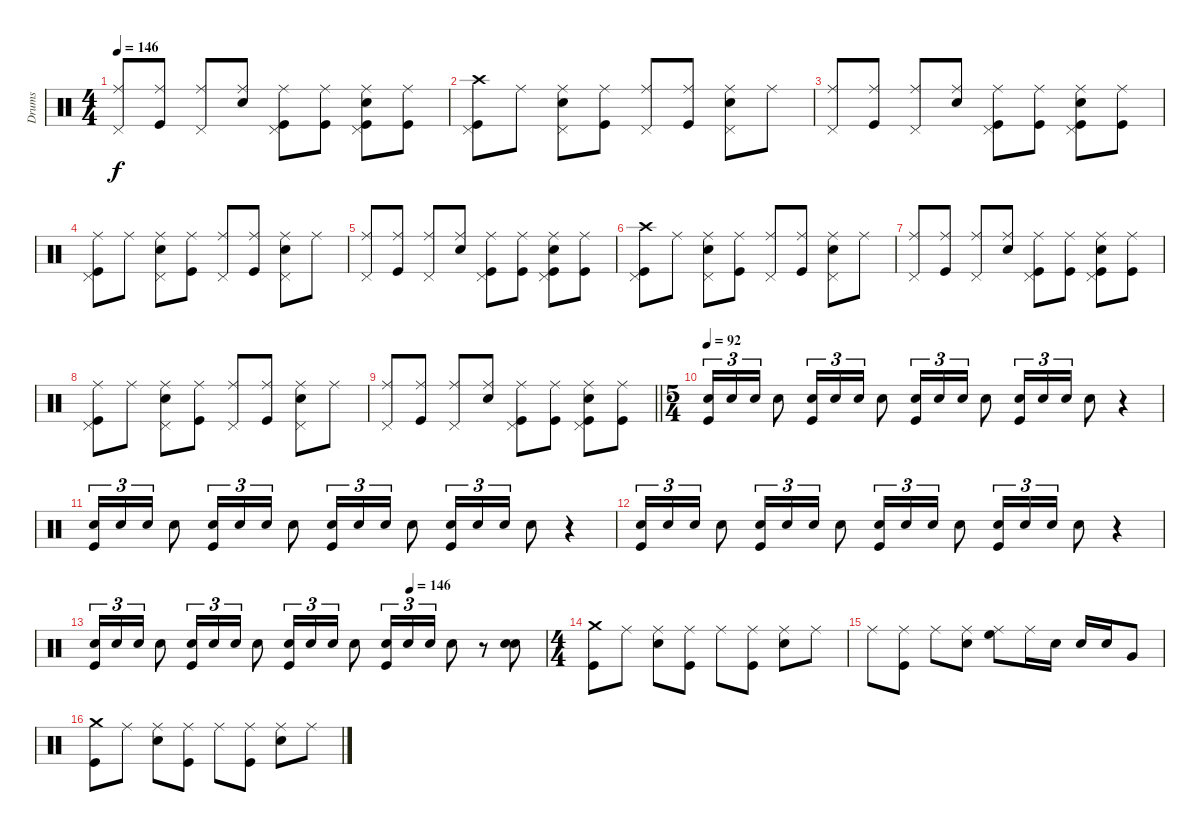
\track ("Drums" "Drums") {instrument percussion}
\staff {score}
\articulation defaults
\ts (4 4)
\tempo 146
\clef neutral
\ks c
("Ride (middle)" "Pedal Hi-Hat (hit)").8{dy f} ("Ride (middle)" "Kick (hit)").8 ("Ride (middle)" "Pedal Hi-Hat (hit)").8 ("Ride (middle)" "Electric Snare (hit)").8 ("Ride (middle)" "Pedal Hi-Hat (hit)" "Kick (hit)").8 ("Ride (middle)" "Kick (hit)").8 ("Ride (middle)" "Pedal Hi-Hat (hit)" "Electric Snare (hit)" "Kick (hit)").8 ("Ride (middle)" "Kick (hit)").8 |
("Crash high (hit)" "Pedal Hi-Hat (hit)" "Kick (hit)").8 "Ride (middle)".8 ("Ride (middle)" "Pedal Hi-Hat (hit)" "Electric Snare (hit)").8 ("Ride (middle)" "Kick (hit)").8 ("Ride (middle)" "Pedal Hi-Hat (hit)").8 ("Ride (middle)" "Kick (hit)").8 ("Ride (middle)" "Pedal Hi-Hat (hit)" "Electric Snare (hit)").8 "Ride (middle)".8 |
("Ride (middle)" "Pedal Hi-Hat (hit)").8 ("Ride (middle)" "Kick (hit)").8 ("Ride (middle)" "Pedal Hi-Hat (hit)").8 ("Ride (middle)" "Electric Snare (hit)").8 ("Ride (middle)" "Pedal Hi-Hat (hit)" "Kick (hit)").8 ("Ride (middle)" "Kick (hit)").8 ("Ride (middle)" "Pedal Hi-Hat (hit)" "Electric Snare (hit)" "Kick (hit)").8 ("Ride (middle)" "Kick (hit)").8 |
("Ride (middle)" "Pedal Hi-Hat (hit)" "Kick (hit)").8 "Ride (middle)".8 ("Ride (middle)" "Pedal Hi-Hat (hit)" "Electric Snare (hit)").8 ("Ride (middle)" "Kick (hit)").8 ("Ride (middle)" "Pedal Hi-Hat (hit)").8 ("Ride (middle)" "Kick (hit)").8 ("Ride (middle)" "Pedal Hi-Hat (hit)" "Electric Snare (hit)").8 "Ride (middle)".8 |
("Ride (middle)" "Pedal Hi-Hat (hit)").8 ("Ride (middle)" "Kick (hit)").8 ("Ride (middle)" "Pedal Hi-Hat (hit)").8 ("Ride (middle)" "Electric Snare (hit)").8 ("Ride (middle)" "Pedal Hi-Hat (hit)" "Kick (hit)").8 ("Ride (middle)" "Kick (hit)").8 ("Ride (middle)" "Pedal Hi-Hat (hit)" "Electric Snare (hit)" "Kick (hit)").8 ("Ride (middle)" "Kick (hit)").8 |
("Crash high (hit)" "Pedal Hi-Hat (hit)" "Kick (hit)").8 "Ride (middle)".8 ("Ride (middle)" "Pedal Hi-Hat (hit)" "Electric Snare (hit)").8 ("Ride (middle)" "Kick (hit)").8 ("Ride (middle)" "Pedal Hi-Hat (hit)").8 ("Ride (middle)" "Kick (hit)").8 ("Ride (middle)" "Pedal Hi-Hat (hit)" "Electric Snare (hit)").8 "Ride (middle)".8 |
("Ride (middle)" "Pedal Hi-Hat (hit)").8 ("Ride (middle)" "Kick (hit)").8 ("Ride (middle)" "Pedal Hi-Hat (hit)").8 ("Ride (middle)" "Electric Snare (hit)").8 ("Ride (middle)" "Pedal Hi-Hat (hit)" "Kick (hit)").8 ("Ride (middle)" "Kick (hit)").8 ("Ride (middle)" "Pedal Hi-Hat (hit)" "Electric Snare (hit)" "Kick (hit)").8 ("Ride (middle)" "Kick (hit)").8 |
("Ride (middle)" "Pedal Hi-Hat (hit)" "Kick (hit)").8 "Ride (middle)".8 ("Ride (middle)" "Pedal Hi-Hat (hit)" "Electric Snare (hit)").8 ("Ride (middle)" "Kick (hit)").8 ("Ride (middle)" "Pedal Hi-Hat (hit)").8 ("Ride (middle)" "Kick (hit)").8 ("Ride (middle)" "Pedal Hi-Hat (hit)" "Electric Snare (hit)").8 "Ride (middle)".8 |
\barLineRight lightlight
("Ride (middle)" "Pedal Hi-Hat (hit)").8 ("Ride (middle)" "Kick (hit)").8 ("Ride (middle)" "Pedal Hi-Hat (hit)").8 ("Ride (middle)" "Electric Snare (hit)").8 ("Ride (middle)" "Pedal Hi-Hat (hit)" "Kick (hit)").8 ("Ride (middle)" "Kick (hit)").8 ("Ride (middle)" "Pedal Hi-Hat (hit)" "Electric Snare (hit)" "Kick (hit)").8 ("Ride (middle)" "Kick (hit)").8 |
\ts (5 4)
\tempo 92
("Electric Snare (hit)" "Kick (hit)").16{tu (3 2)} "Electric Snare (hit)".16{tu (3 2)} "Electric Snare (hit)".16{tu (3 2)} "Electric Snare (hit)".8 ("Electric Snare (hit)" "Kick (hit)").16{tu (3 2)} "Electric Snare (hit)".16{tu (3 2)} "Electric Snare (hit)".16{tu (3 2)} "Electric Snare (hit)".8 ("Electric Snare (hit)" "Kick (hit)").16{tu (3 2)} "Electric Snare (hit)".16{tu (3 2)} "Electric Snare (hit)".16{tu (3 2)} "Electric Snare (hit)".8 ("Electric Snare (hit)" "Kick (hit)").16{tu (3 2)} "Electric Snare (hit)".16{tu (3 2)} "Electric Snare (hit)".16{tu (3 2)} "Electric Snare (hit)".8 r.4 |
("Electric Snare (hit)" "Kick (hit)").16{tu (3 2)} "Electric Snare (hit)".16{tu (3 2)} "Electric Snare (hit)".16{tu (3 2)} "Electric Snare (hit)".8 ("Electric Snare (hit)" "Kick (hit)").16{tu (3 2)} "Electric Snare (hit)".16{tu (3 2)} "Electric Snare (hit)".16{tu (3 2)} "Electric Snare (hit)".8 ("Electric Snare (hit)" "Kick (hit)").16{tu (3 2)} "Electric Snare (hit)".16{tu (3 2)} "Electric Snare (hit)".16{tu (3 2)} "Electric Snare (hit)".8 ("Electric Snare (hit)" "Kick (hit)").16{tu (3 2)} "Electric Snare (hit)".16{tu (3 2)} "Electric Snare (hit)".16{tu (3 2)} "Electric Snare (hit)".8 r.4 |
("Electric Snare (hit)" "Kick (hit)").16{tu (3 2)} "Electric Snare (hit)".16{tu (3 2)} "Electric Snare (hit)".16{tu (3 2)} "Electric Snare (hit)".8 ("Electric Snare (hit)" "Kick (hit)").16{tu (3 2)} "Electric Snare (hit)".16{tu (3 2)} "Electric Snare (hit)".16{tu (3 2)} "Electric Snare (hit)".8 ("Electric Snare (hit)" "Kick (hit)").16{tu (3 2)} "Electric Snare (hit)".16{tu (3 2)} "Electric Snare (hit)".16{tu (3 2)} "Electric Snare (hit)".8 ("Electric Snare (hit)" "Kick (hit)").16{tu (3 2)} "Electric Snare (hit)".16{tu (3 2)} "Electric Snare (hit)".16{tu (3 2)} "Electric Snare (hit)".8 r.4 |
\tempo (146 0.7)
("Electric Snare (hit)" "Kick (hit)").16{tu (3 2)} "Electric Snare (hit)".16{tu (3 2)} "Electric Snare (hit)".16{tu (3 2)} "Electric Snare (hit)".8 ("Electric Snare (hit)" "Kick (hit)").16{tu (3 2)} "Electric Snare (hit)".16{tu (3 2)} "Electric Snare (hit)".16{tu (3 2)} "Electric Snare (hit)".8 ("Electric Snare (hit)" "Kick (hit)").16{tu (3 2)} "Electric Snare (hit)".16{tu (3 2)} "Electric Snare (hit)".16{tu (3 2)} "Electric Snare (hit)".8 ("Electric Snare (hit)" "Kick (hit)").16{tu (3 2)} "Electric Snare (hit)".16{tu (3 2)} "Electric Snare (hit)".16{tu (3 2)} "Electric Snare (hit)".8 r.8 ("Electric Snare (hit)" "Electric Snare (hit)").8 |
\ts (4 4)
("Crash medium (hit)" "Kick (hit)").8 "Ride (middle)".8 ("Ride (middle)" "Electric Snare (hit)").8 ("Ride (middle)" "Kick (hit)").8 "Ride (middle)".8 ("Ride (middle)" "Kick (hit)").8 ("Ride (middle)" "Electric Snare (hit)").8 "Ride (middle)".8 |
"Ride (middle)".8 ("Ride (middle)" "Kick (hit)").8 "Ride (middle)".8 ("Ride (middle)" "Electric Snare (hit)").8 ("Ride (middle)" "High Floor Tom (hit)").8 "Ride (middle)".16 "Electric Snare (hit)".16 "Electric Snare (hit)".16 "Electric Snare (hit)".16 "Very Low Tom (hit)".8 |
("Crash medium (hit)" "Kick (hit)").8 "Ride (middle)".8 ("Ride (middle)" "Electric Snare (hit)").8 ("Ride (middle)" "Kick (hit)").8 "Ride (middle)".8 ("Ride (middle)" "Kick (hit)").8 ("Ride (middle)" "Electric Snare (hit)").8 "Ride (middle)".8
